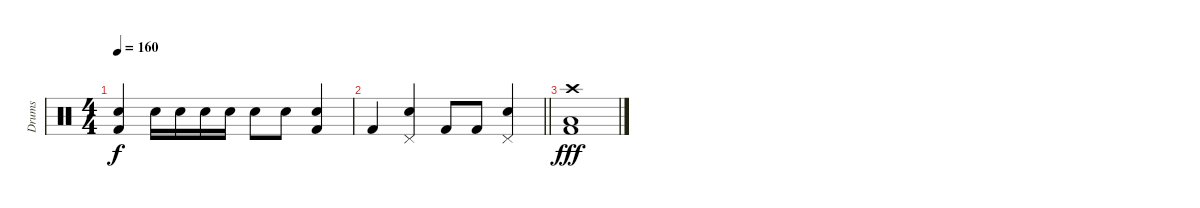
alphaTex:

\track ("Drums" "Drums") {instrument percussion}
\staff {score}
\articulation defaults
\ts (4 4)
\tempo 160
\clef neutral
\ks c
("Kick (hit) 2" "Electric Snare (hit)").4{dy f} "Electric Snare (hit)".16 "Electric Snare (hit)".16 "Electric Snare (hit)".16 "Electric Snare (hit)".16 "Electric Snare (hit)".8 "Electric Snare (hit)".8 ("Kick (hit) 2" "Electric Snare (hit)").4 |
\barLineRight lightlight "Kick (hit) 2".4
("Pedal Hi-Hat (hit)" "Electric Snare (hit)").4 "Kick (hit) 2".8 "Kick (hit) 2".8 ("Pedal Hi-Hat (hit)" "Electric Snare (hit)").4 |
("Kick (hit) 2" "Crash high (hit)" "Low Floor Tom (hit)").1{dy fff}
